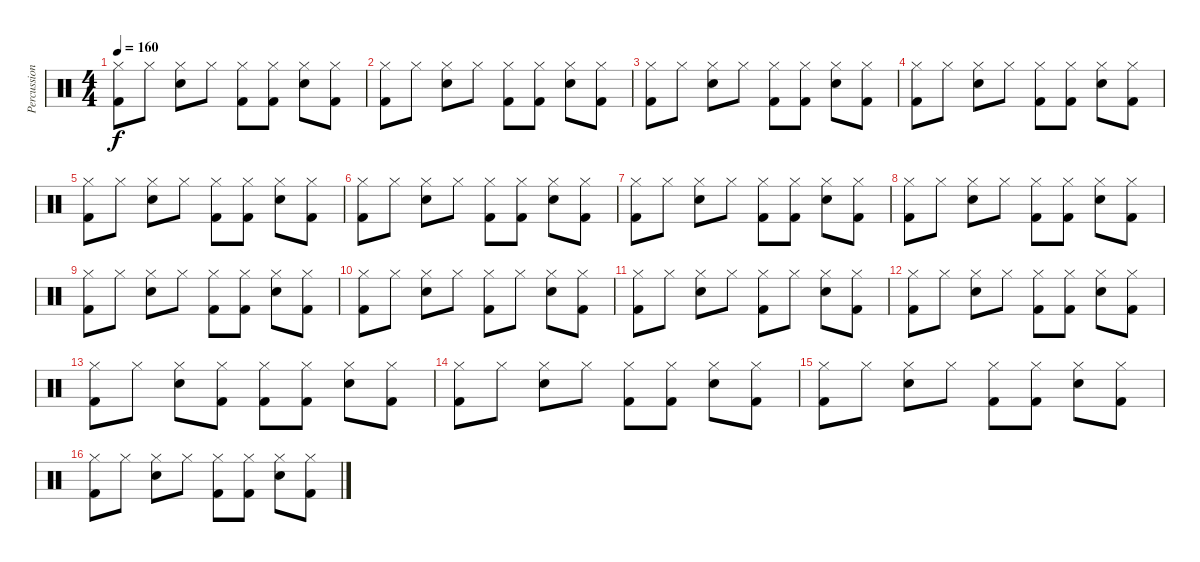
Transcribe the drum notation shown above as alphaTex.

\track ("Percussion" "Percussion") {instrument percussion}
\staff {score}
\articulation defaults
\ts (4 4)
\tempo 160
\clef neutral
\ks c
("Hi-Hat (closed)" "Kick (hit) 2").8{dy f} "Hi-Hat (closed)".8 ("Hi-Hat (closed)" "Snare (hit) 2").8 "Hi-Hat (closed)".8 ("Hi-Hat (closed)" "Kick (hit) 2").8 ("Hi-Hat (closed)" "Kick (hit) 2").8 ("Hi-Hat (closed)" "Snare (hit) 2").8 ("Hi-Hat (closed)" "Kick (hit) 2").8 |
("Hi-Hat (closed)" "Kick (hit) 2").8 "Hi-Hat (closed)".8 ("Hi-Hat (closed)" "Snare (hit) 2").8 "Hi-Hat (closed)".8 ("Hi-Hat (closed)" "Kick (hit) 2").8 ("Hi-Hat (closed)" "Kick (hit) 2").8 ("Hi-Hat (closed)" "Snare (hit) 2").8 ("Hi-Hat (closed)" "Kick (hit) 2").8 |
("Hi-Hat (closed)" "Kick (hit) 2").8 "Hi-Hat (closed)".8 ("Hi-Hat (closed)" "Snare (hit) 2").8 "Hi-Hat (closed)".8 ("Hi-Hat (closed)" "Kick (hit) 2").8 ("Hi-Hat (closed)" "Kick (hit) 2").8 ("Hi-Hat (closed)" "Snare (hit) 2").8 ("Hi-Hat (closed)" "Kick (hit) 2").8 |
("Hi-Hat (closed)" "Kick (hit) 2").8 "Hi-Hat (closed)".8 ("Hi-Hat (closed)" "Snare (hit) 2").8 "Hi-Hat (closed)".8 ("Hi-Hat (closed)" "Kick (hit) 2").8 ("Hi-Hat (closed)" "Kick (hit) 2").8 ("Hi-Hat (closed)" "Snare (hit) 2").8 ("Hi-Hat (closed)" "Kick (hit) 2").8 |
("Hi-Hat (closed)" "Kick (hit) 2").8 "Hi-Hat (closed)".8 ("Hi-Hat (closed)" "Snare (hit) 2").8 "Hi-Hat (closed)".8 ("Hi-Hat (closed)" "Kick (hit) 2").8 ("Hi-Hat (closed)" "Kick (hit) 2").8 ("Hi-Hat (closed)" "Snare (hit) 2").8 ("Hi-Hat (closed)" "Kick (hit) 2").8 |
("Hi-Hat (closed)" "Kick (hit) 2").8 "Hi-Hat (closed)".8 ("Hi-Hat (closed)" "Snare (hit) 2").8 "Hi-Hat (closed)".8 ("Hi-Hat (closed)" "Kick (hit) 2").8 ("Hi-Hat (closed)" "Kick (hit) 2").8 ("Hi-Hat (closed)" "Snare (hit) 2").8 ("Hi-Hat (closed)" "Kick (hit) 2").8 |
("Hi-Hat (closed)" "Kick (hit) 2").8 "Hi-Hat (closed)".8 ("Hi-Hat (closed)" "Snare (hit) 2").8 "Hi-Hat (closed)".8 ("Hi-Hat (closed)" "Kick (hit) 2").8 ("Hi-Hat (closed)" "Kick (hit) 2").8 ("Hi-Hat (closed)" "Snare (hit) 2").8 ("Hi-Hat (closed)" "Kick (hit) 2").8 |
("Hi-Hat (closed)" "Kick (hit) 2").8 "Hi-Hat (closed)".8 ("Hi-Hat (closed)" "Snare (hit) 2").8 "Hi-Hat (closed)".8 ("Hi-Hat (closed)" "Kick (hit) 2").8 ("Hi-Hat (closed)" "Kick (hit) 2").8 ("Hi-Hat (closed)" "Snare (hit) 2").8 ("Hi-Hat (closed)" "Kick (hit) 2").8 |
("Hi-Hat (closed)" "Kick (hit) 2").8 "Hi-Hat (closed)".8 ("Hi-Hat (closed)" "Snare (hit) 2").8 "Hi-Hat (closed)".8 ("Hi-Hat (closed)" "Kick (hit) 2").8 ("Hi-Hat (closed)" "Kick (hit) 2").8 ("Hi-Hat (closed)" "Snare (hit) 2").8 ("Hi-Hat (closed)" "Kick (hit) 2").8 |
("Hi-Hat (closed)" "Kick (hit) 2").8 "Hi-Hat (closed)".8 ("Hi-Hat (closed)" "Snare (hit) 2").8 "Hi-Hat (closed)".8 ("Hi-Hat (closed)" "Kick (hit) 2").8 "Hi-Hat (closed)".8 ("Hi-Hat (closed)" "Snare (hit) 2").8 ("Hi-Hat (closed)" "Kick (hit) 2").8 |
("Hi-Hat (closed)" "Kick (hit) 2").8 "Hi-Hat (closed)".8 ("Hi-Hat (closed)" "Snare (hit) 2").8 "Hi-Hat (closed)".8 ("Hi-Hat (closed)" "Kick (hit) 2").8 "Hi-Hat (closed)".8 ("Hi-Hat (closed)" "Snare (hit) 2").8 ("Hi-Hat (closed)" "Kick (hit) 2").8 |
("Hi-Hat (closed)" "Kick (hit) 2").8 "Hi-Hat (closed)".8 ("Hi-Hat (closed)" "Snare (hit) 2").8 "Hi-Hat (closed)".8 ("Hi-Hat (closed)" "Kick (hit) 2").8 ("Hi-Hat (closed)" "Kick (hit) 2").8 ("Hi-Hat (closed)" "Snare (hit) 2").8 ("Hi-Hat (closed)" "Kick (hit) 2").8 |
("Hi-Hat (closed)" "Kick (hit) 2").8 "Hi-Hat (closed)".8 ("Hi-Hat (closed)" "Snare (hit) 2").8 ("Hi-Hat (closed)" "Kick (hit) 2").8 ("Hi-Hat (closed)" "Kick (hit) 2").8 ("Hi-Hat (closed)" "Kick (hit) 2").8 ("Hi-Hat (closed)" "Snare (hit) 2").8 ("Hi-Hat (closed)" "Kick (hit) 2").8 |
("Hi-Hat (closed)" "Kick (hit) 2").8 "Hi-Hat (closed)".8 ("Hi-Hat (closed)" "Snare (hit) 2").8 "Hi-Hat (closed)".8 ("Hi-Hat (closed)" "Kick (hit) 2").8 ("Hi-Hat (closed)" "Kick (hit) 2").8 ("Hi-Hat (closed)" "Snare (hit) 2").8 ("Hi-Hat (closed)" "Kick (hit) 2").8 |
("Hi-Hat (closed)" "Kick (hit) 2").8 "Hi-Hat (closed)".8 ("Hi-Hat (closed)" "Snare (hit) 2").8 "Hi-Hat (closed)".8 ("Hi-Hat (closed)" "Kick (hit) 2").8 ("Hi-Hat (closed)" "Kick (hit) 2").8 ("Hi-Hat (closed)" "Snare (hit) 2").8 ("Hi-Hat (closed)" "Kick (hit) 2").8 |
("Hi-Hat (closed)" "Kick (hit) 2").8 "Hi-Hat (closed)".8 ("Hi-Hat (closed)" "Snare (hit) 2").8 "Hi-Hat (closed)".8 ("Hi-Hat (closed)" "Kick (hit) 2").8 ("Hi-Hat (closed)" "Kick (hit) 2").8 ("Hi-Hat (closed)" "Snare (hit) 2").8 ("Hi-Hat (closed)" "Kick (hit) 2").8
